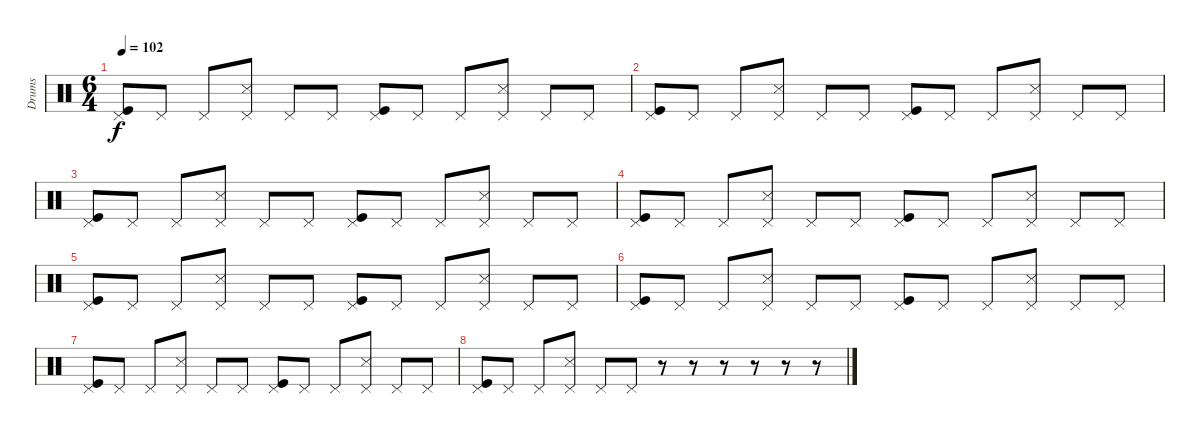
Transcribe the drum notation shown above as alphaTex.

\track ("Drums" "Drums") {instrument percussion}
\staff {score}
\articulation defaults
\ts (6 4)
\tempo 102
\clef neutral
\ks c
("Pedal Hi-Hat (hit)" "Kick (hit)").8{dy f} "Pedal Hi-Hat (hit)".8 "Pedal Hi-Hat (hit)".8 ("Pedal Hi-Hat (hit)" "Snare (side stick) 3").8 "Pedal Hi-Hat (hit)".8 "Pedal Hi-Hat (hit)".8 ("Pedal Hi-Hat (hit)" "Kick (hit)").8 "Pedal Hi-Hat (hit)".8 "Pedal Hi-Hat (hit)".8 ("Pedal Hi-Hat (hit)" "Snare (side stick) 3").8 "Pedal Hi-Hat (hit)".8 "Pedal Hi-Hat (hit)".8 |
("Pedal Hi-Hat (hit)" "Kick (hit)").8 "Pedal Hi-Hat (hit)".8 "Pedal Hi-Hat (hit)".8 ("Pedal Hi-Hat (hit)" "Snare (side stick) 3").8 "Pedal Hi-Hat (hit)".8 "Pedal Hi-Hat (hit)".8 ("Pedal Hi-Hat (hit)" "Kick (hit)").8 "Pedal Hi-Hat (hit)".8 "Pedal Hi-Hat (hit)".8 ("Pedal Hi-Hat (hit)" "Snare (side stick) 3").8 "Pedal Hi-Hat (hit)".8 "Pedal Hi-Hat (hit)".8 |
("Pedal Hi-Hat (hit)" "Kick (hit)").8 "Pedal Hi-Hat (hit)".8 "Pedal Hi-Hat (hit)".8 ("Pedal Hi-Hat (hit)" "Snare (side stick) 3").8 "Pedal Hi-Hat (hit)".8 "Pedal Hi-Hat (hit)".8 ("Pedal Hi-Hat (hit)" "Kick (hit)").8 "Pedal Hi-Hat (hit)".8 "Pedal Hi-Hat (hit)".8 ("Pedal Hi-Hat (hit)" "Snare (side stick) 3").8 "Pedal Hi-Hat (hit)".8 "Pedal Hi-Hat (hit)".8 |
("Pedal Hi-Hat (hit)" "Kick (hit)").8 "Pedal Hi-Hat (hit)".8 "Pedal Hi-Hat (hit)".8 ("Pedal Hi-Hat (hit)" "Snare (side stick) 3").8 "Pedal Hi-Hat (hit)".8 "Pedal Hi-Hat (hit)".8 ("Pedal Hi-Hat (hit)" "Kick (hit)").8 "Pedal Hi-Hat (hit)".8 "Pedal Hi-Hat (hit)".8 ("Pedal Hi-Hat (hit)" "Snare (side stick) 3").8 "Pedal Hi-Hat (hit)".8 "Pedal Hi-Hat (hit)".8 |
("Pedal Hi-Hat (hit)" "Kick (hit)").8 "Pedal Hi-Hat (hit)".8 "Pedal Hi-Hat (hit)".8 ("Pedal Hi-Hat (hit)" "Snare (side stick) 3").8 "Pedal Hi-Hat (hit)".8 "Pedal Hi-Hat (hit)".8 ("Pedal Hi-Hat (hit)" "Kick (hit)").8 "Pedal Hi-Hat (hit)".8 "Pedal Hi-Hat (hit)".8 ("Pedal Hi-Hat (hit)" "Snare (side stick) 3").8 "Pedal Hi-Hat (hit)".8 "Pedal Hi-Hat (hit)".8 |
("Pedal Hi-Hat (hit)" "Kick (hit)").8 "Pedal Hi-Hat (hit)".8 "Pedal Hi-Hat (hit)".8 ("Pedal Hi-Hat (hit)" "Snare (side stick) 3").8 "Pedal Hi-Hat (hit)".8 "Pedal Hi-Hat (hit)".8 ("Pedal Hi-Hat (hit)" "Kick (hit)").8 "Pedal Hi-Hat (hit)".8 "Pedal Hi-Hat (hit)".8 ("Pedal Hi-Hat (hit)" "Snare (side stick) 3").8 "Pedal Hi-Hat (hit)".8 "Pedal Hi-Hat (hit)".8 |
("Pedal Hi-Hat (hit)" "Kick (hit)").8 "Pedal Hi-Hat (hit)".8 "Pedal Hi-Hat (hit)".8 ("Pedal Hi-Hat (hit)" "Snare (side stick) 3").8 "Pedal Hi-Hat (hit)".8 "Pedal Hi-Hat (hit)".8 ("Pedal Hi-Hat (hit)" "Kick (hit)").8 "Pedal Hi-Hat (hit)".8 "Pedal Hi-Hat (hit)".8 ("Pedal Hi-Hat (hit)" "Snare (side stick) 3").8 "Pedal Hi-Hat (hit)".8 "Pedal Hi-Hat (hit)".8 |
("Pedal Hi-Hat (hit)" "Kick (hit)").8 "Pedal Hi-Hat (hit)".8 "Pedal Hi-Hat (hit)".8 ("Pedal Hi-Hat (hit)" "Snare (side stick) 3").8 "Pedal Hi-Hat (hit)".8 "Pedal Hi-Hat (hit)".8 r.8 r.8 r.8 r.8 r.8 r.8
